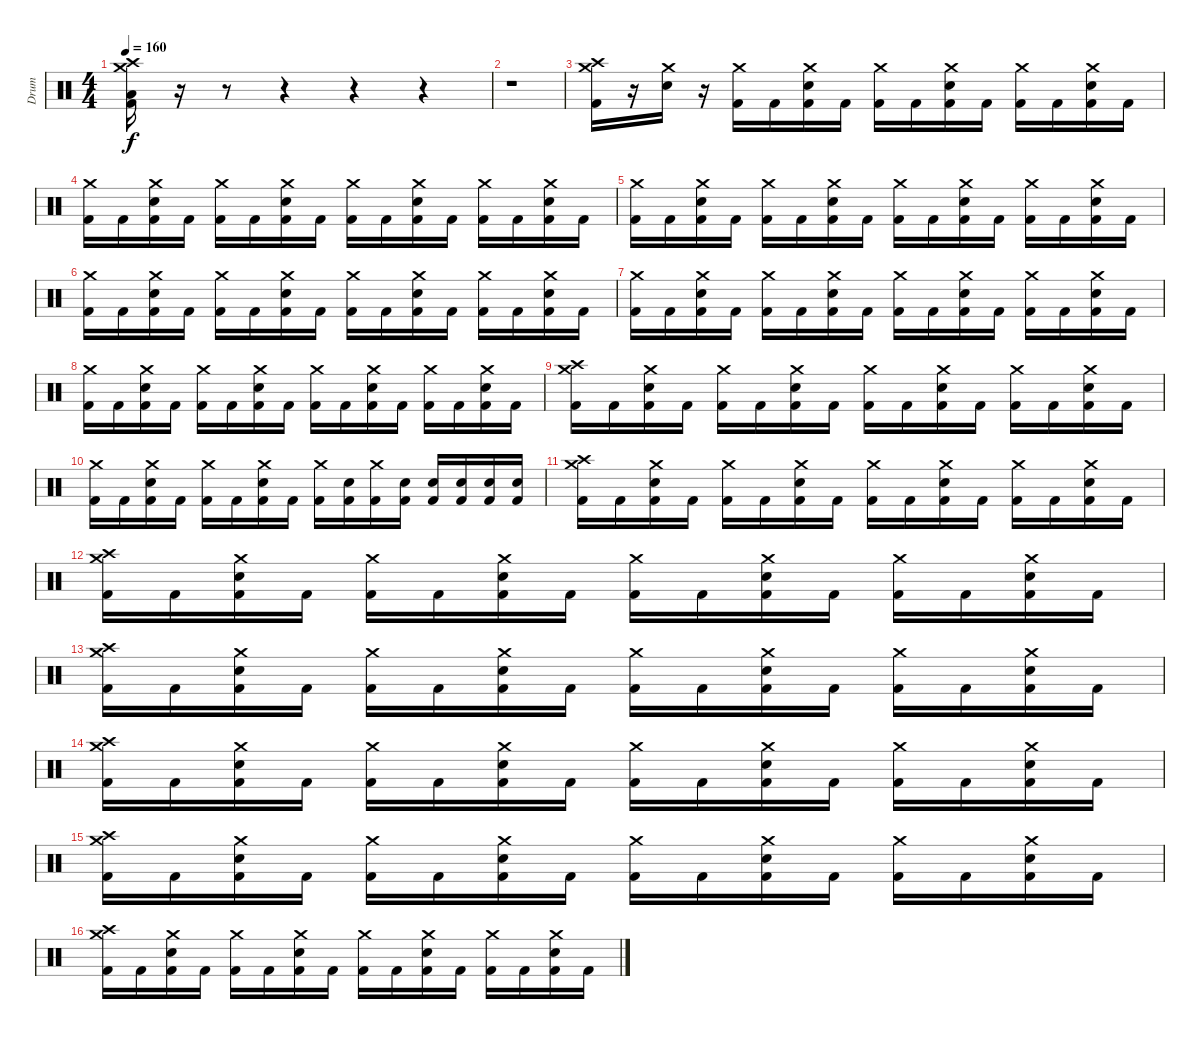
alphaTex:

\track ("Drum" "Drum") {instrument percussion}
\staff {score}
\articulation defaults
\ts (4 4)
\tempo 160
\clef neutral
\ks c
("Crash high (hit)" "Crash medium (hit)" "Kick (hit) 2" "Low Floor Tom (hit)").16{dy f} r.16 r.8 r.4 r.4 r.4 |
r.1 |
("Crash high (hit)" "Crash medium (hit)" "Kick (hit) 2").16 r.16 ("Crash medium (hit)" "Electric Snare (hit)").16 r.16 ("Crash medium (hit)" "Kick (hit) 2").16 "Kick (hit) 2".16 ("Crash medium (hit)" "Kick (hit) 2" "Electric Snare (hit)").16 "Kick (hit) 2".16 ("Crash medium (hit)" "Kick (hit) 2").16 "Kick (hit) 2".16 ("Crash medium (hit)" "Kick (hit) 2" "Electric Snare (hit)").16 "Kick (hit) 2".16 ("Crash medium (hit)" "Kick (hit) 2").16 "Kick (hit) 2".16 ("Crash medium (hit)" "Kick (hit) 2" "Electric Snare (hit)").16 "Kick (hit) 2".16 |
("Crash medium (hit)" "Kick (hit) 2").16 "Kick (hit) 2".16 ("Crash medium (hit)" "Kick (hit) 2" "Electric Snare (hit)").16 "Kick (hit) 2".16 ("Crash medium (hit)" "Kick (hit) 2").16 "Kick (hit) 2".16 ("Crash medium (hit)" "Kick (hit) 2" "Electric Snare (hit)").16 "Kick (hit) 2".16 ("Crash medium (hit)" "Kick (hit) 2").16 "Kick (hit) 2".16 ("Crash medium (hit)" "Kick (hit) 2" "Electric Snare (hit)").16 "Kick (hit) 2".16 ("Crash medium (hit)" "Kick (hit) 2").16 "Kick (hit) 2".16 ("Crash medium (hit)" "Kick (hit) 2" "Electric Snare (hit)").16 "Kick (hit) 2".16 |
("Crash medium (hit)" "Kick (hit) 2").16 "Kick (hit) 2".16 ("Crash medium (hit)" "Kick (hit) 2" "Electric Snare (hit)").16 "Kick (hit) 2".16 ("Crash medium (hit)" "Kick (hit) 2").16 "Kick (hit) 2".16 ("Crash medium (hit)" "Kick (hit) 2" "Electric Snare (hit)").16 "Kick (hit) 2".16 ("Crash medium (hit)" "Kick (hit) 2").16 "Kick (hit) 2".16 ("Crash medium (hit)" "Kick (hit) 2" "Electric Snare (hit)").16 "Kick (hit) 2".16 ("Crash medium (hit)" "Kick (hit) 2").16 "Kick (hit) 2".16 ("Crash medium (hit)" "Kick (hit) 2" "Electric Snare (hit)").16 "Kick (hit) 2".16 |
("Crash medium (hit)" "Kick (hit) 2").16 "Kick (hit) 2".16 ("Crash medium (hit)" "Kick (hit) 2" "Electric Snare (hit)").16 "Kick (hit) 2".16 ("Crash medium (hit)" "Kick (hit) 2").16 "Kick (hit) 2".16 ("Crash medium (hit)" "Kick (hit) 2" "Electric Snare (hit)").16 "Kick (hit) 2".16 ("Crash medium (hit)" "Kick (hit) 2").16 "Kick (hit) 2".16 ("Crash medium (hit)" "Kick (hit) 2" "Electric Snare (hit)").16 "Kick (hit) 2".16 ("Crash medium (hit)" "Kick (hit) 2").16 "Kick (hit) 2".16 ("Crash medium (hit)" "Kick (hit) 2" "Electric Snare (hit)").16 "Kick (hit) 2".16 |
("Crash medium (hit)" "Kick (hit) 2").16 "Kick (hit) 2".16 ("Crash medium (hit)" "Kick (hit) 2" "Electric Snare (hit)").16 "Kick (hit) 2".16 ("Crash medium (hit)" "Kick (hit) 2").16 "Kick (hit) 2".16 ("Crash medium (hit)" "Kick (hit) 2" "Electric Snare (hit)").16 "Kick (hit) 2".16 ("Crash medium (hit)" "Kick (hit) 2").16 "Kick (hit) 2".16 ("Crash medium (hit)" "Kick (hit) 2" "Electric Snare (hit)").16 "Kick (hit) 2".16 ("Crash medium (hit)" "Kick (hit) 2").16 "Kick (hit) 2".16 ("Crash medium (hit)" "Kick (hit) 2" "Electric Snare (hit)").16 "Kick (hit) 2".16 |
("Crash medium (hit)" "Kick (hit) 2").16 "Kick (hit) 2".16 ("Crash medium (hit)" "Kick (hit) 2" "Electric Snare (hit)").16 "Kick (hit) 2".16 ("Crash medium (hit)" "Kick (hit) 2").16 "Kick (hit) 2".16 ("Crash medium (hit)" "Kick (hit) 2" "Electric Snare (hit)").16 "Kick (hit) 2".16 ("Crash medium (hit)" "Kick (hit) 2").16 "Kick (hit) 2".16 ("Crash medium (hit)" "Kick (hit) 2" "Electric Snare (hit)").16 "Kick (hit) 2".16 ("Crash medium (hit)" "Kick (hit) 2").16 "Kick (hit) 2".16 ("Crash medium (hit)" "Kick (hit) 2" "Electric Snare (hit)").16 "Kick (hit) 2".16 |
("Crash high (hit)" "Crash medium (hit)" "Kick (hit) 2").16 "Kick (hit) 2".16 ("Crash medium (hit)" "Kick (hit) 2" "Electric Snare (hit)").16 "Kick (hit) 2".16 ("Crash medium (hit)" "Kick (hit) 2").16 "Kick (hit) 2".16 ("Crash medium (hit)" "Kick (hit) 2" "Electric Snare (hit)").16 "Kick (hit) 2".16 ("Crash medium (hit)" "Kick (hit) 2").16 "Kick (hit) 2".16 ("Crash medium (hit)" "Kick (hit) 2" "Electric Snare (hit)").16 "Kick (hit) 2".16 ("Crash medium (hit)" "Kick (hit) 2").16 "Kick (hit) 2".16 ("Crash medium (hit)" "Kick (hit) 2" "Electric Snare (hit)").16 "Kick (hit) 2".16 |
("Crash medium (hit)" "Kick (hit) 2").16 "Kick (hit) 2".16 ("Crash medium (hit)" "Kick (hit) 2" "Electric Snare (hit)").16 "Kick (hit) 2".16 ("Crash medium (hit)" "Kick (hit) 2").16 "Kick (hit) 2".16 ("Crash medium (hit)" "Kick (hit) 2" "Electric Snare (hit)").16 "Kick (hit) 2".16 ("Crash medium (hit)" "Kick (hit) 2").16 ("Kick (hit) 2" "Electric Snare (hit)").16 ("Crash medium (hit)" "Kick (hit) 2").16 ("Kick (hit) 2" "Electric Snare (hit)").16 ("Kick (hit) 2" "Electric Snare (hit)").16 ("Kick (hit) 2" "Electric Snare (hit)").16 ("Kick (hit) 2" "Electric Snare (hit)").16 ("Kick (hit) 2" "Electric Snare (hit)").16 |
("Crash high (hit)" "Crash medium (hit)" "Kick (hit) 2").16 "Kick (hit) 2".16 ("Crash medium (hit)" "Kick (hit) 2" "Electric Snare (hit)").16 "Kick (hit) 2".16 ("Crash medium (hit)" "Kick (hit) 2").16 "Kick (hit) 2".16 ("Crash medium (hit)" "Kick (hit) 2" "Electric Snare (hit)").16 "Kick (hit) 2".16 ("Crash medium (hit)" "Kick (hit) 2").16 "Kick (hit) 2".16 ("Crash medium (hit)" "Kick (hit) 2" "Electric Snare (hit)").16 "Kick (hit) 2".16 ("Crash medium (hit)" "Kick (hit) 2").16 "Kick (hit) 2".16 ("Crash medium (hit)" "Kick (hit) 2" "Electric Snare (hit)").16 "Kick (hit) 2".16 |
("Crash high (hit)" "Crash medium (hit)" "Kick (hit) 2").16 "Kick (hit) 2".16 ("Crash medium (hit)" "Kick (hit) 2" "Electric Snare (hit)").16 "Kick (hit) 2".16 ("Crash medium (hit)" "Kick (hit) 2").16 "Kick (hit) 2".16 ("Crash medium (hit)" "Kick (hit) 2" "Electric Snare (hit)").16 "Kick (hit) 2".16 ("Crash medium (hit)" "Kick (hit) 2").16 "Kick (hit) 2".16 ("Crash medium (hit)" "Kick (hit) 2" "Electric Snare (hit)").16 "Kick (hit) 2".16 ("Crash medium (hit)" "Kick (hit) 2").16 "Kick (hit) 2".16 ("Crash medium (hit)" "Kick (hit) 2" "Electric Snare (hit)").16 "Kick (hit) 2".16 |
("Crash high (hit)" "Crash medium (hit)" "Kick (hit) 2").16 "Kick (hit) 2".16 ("Crash medium (hit)" "Kick (hit) 2" "Electric Snare (hit)").16 "Kick (hit) 2".16 ("Crash medium (hit)" "Kick (hit) 2").16 "Kick (hit) 2".16 ("Crash medium (hit)" "Kick (hit) 2" "Electric Snare (hit)").16 "Kick (hit) 2".16 ("Crash medium (hit)" "Kick (hit) 2").16 "Kick (hit) 2".16 ("Crash medium (hit)" "Kick (hit) 2" "Electric Snare (hit)").16 "Kick (hit) 2".16 ("Crash medium (hit)" "Kick (hit) 2").16 "Kick (hit) 2".16 ("Crash medium (hit)" "Kick (hit) 2" "Electric Snare (hit)").16 "Kick (hit) 2".16 |
("Crash high (hit)" "Crash medium (hit)" "Kick (hit) 2").16 "Kick (hit) 2".16 ("Crash medium (hit)" "Kick (hit) 2" "Electric Snare (hit)").16 "Kick (hit) 2".16 ("Crash medium (hit)" "Kick (hit) 2").16 "Kick (hit) 2".16 ("Crash medium (hit)" "Kick (hit) 2" "Electric Snare (hit)").16 "Kick (hit) 2".16 ("Crash medium (hit)" "Kick (hit) 2").16 "Kick (hit) 2".16 ("Crash medium (hit)" "Kick (hit) 2" "Electric Snare (hit)").16 "Kick (hit) 2".16 ("Crash medium (hit)" "Kick (hit) 2").16 "Kick (hit) 2".16 ("Crash medium (hit)" "Kick (hit) 2" "Electric Snare (hit)").16 "Kick (hit) 2".16 |
("Crash high (hit)" "Crash medium (hit)" "Kick (hit) 2").16 "Kick (hit) 2".16 ("Crash medium (hit)" "Kick (hit) 2" "Electric Snare (hit)").16 "Kick (hit) 2".16 ("Crash medium (hit)" "Kick (hit) 2").16 "Kick (hit) 2".16 ("Crash medium (hit)" "Kick (hit) 2" "Electric Snare (hit)").16 "Kick (hit) 2".16 ("Crash medium (hit)" "Kick (hit) 2").16 "Kick (hit) 2".16 ("Crash medium (hit)" "Kick (hit) 2" "Electric Snare (hit)").16 "Kick (hit) 2".16 ("Crash medium (hit)" "Kick (hit) 2").16 "Kick (hit) 2".16 ("Crash medium (hit)" "Kick (hit) 2" "Electric Snare (hit)").16 "Kick (hit) 2".16 |
("Crash high (hit)" "Crash medium (hit)" "Kick (hit) 2").16 "Kick (hit) 2".16 ("Crash medium (hit)" "Kick (hit) 2" "Electric Snare (hit)").16 "Kick (hit) 2".16 ("Crash medium (hit)" "Kick (hit) 2").16 "Kick (hit) 2".16 ("Crash medium (hit)" "Kick (hit) 2" "Electric Snare (hit)").16 "Kick (hit) 2".16 ("Crash medium (hit)" "Kick (hit) 2").16 "Kick (hit) 2".16 ("Crash medium (hit)" "Kick (hit) 2" "Electric Snare (hit)").16 "Kick (hit) 2".16 ("Crash medium (hit)" "Kick (hit) 2").16 "Kick (hit) 2".16 ("Crash medium (hit)" "Kick (hit) 2" "Electric Snare (hit)").16 "Kick (hit) 2".16
